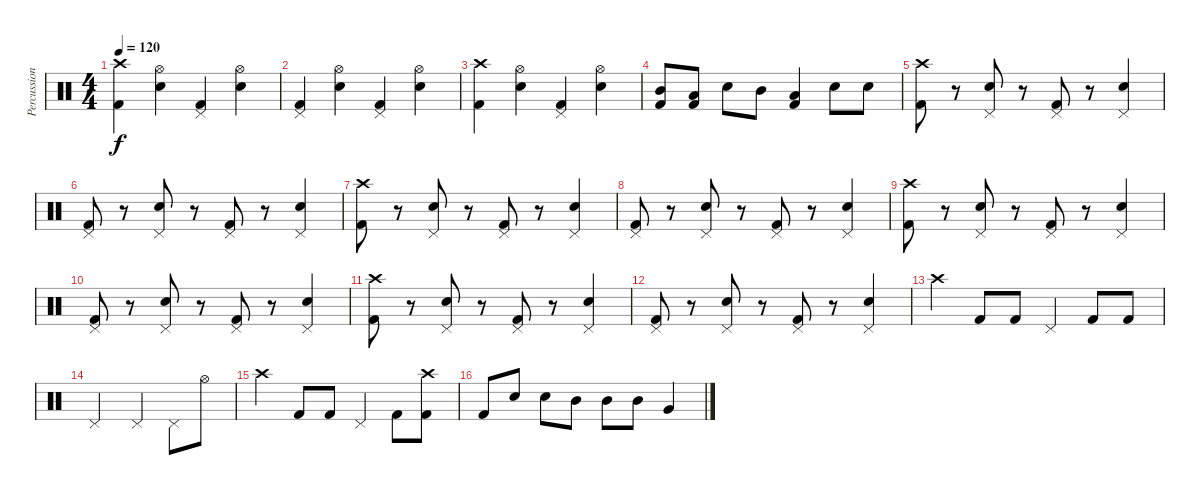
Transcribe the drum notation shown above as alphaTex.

\track ("Percussions" "Percussion") {instrument percussion}
\staff {score}
\articulation defaults
\ts (4 4)
\tempo 120
\clef neutral
\ks c
("Crash high (hit)" "Kick (hit) 2").4{dy f} ("Hi-Hat (open)" "Snare (hit) 2").4 ("Pedal Hi-Hat (hit)" "Kick (hit) 2").4 ("Hi-Hat (open)" "Snare (hit) 2").4 |
("Pedal Hi-Hat (hit)" "Kick (hit) 2").4 ("Hi-Hat (open)" "Snare (hit) 2").4 ("Pedal Hi-Hat (hit)" "Kick (hit) 2").4 ("Hi-Hat (open)" "Snare (hit) 2").4 |
("Crash high (hit)" "Kick (hit) 2").4 ("Hi-Hat (open)" "Snare (hit) 2").4 ("Pedal Hi-Hat (hit)" "Kick (hit) 2").4 ("Hi-Hat (open)" "Snare (hit) 2").4 |
("Mid Tom (hit)" "Kick (hit) 2").8 ("Low Tom (hit)" "Kick (hit) 2").8 "Snare (hit) 2".8 "Mid Tom (hit)".8 ("Low Tom (hit)" "Kick (hit) 2").4 "Snare (hit) 2".8 "Snare (hit) 2".8 |
("Crash high (hit)" "Kick (hit) 2").8 r.8 ("Pedal Hi-Hat (hit)" "Snare (hit) 2").8 r.8 ("Pedal Hi-Hat (hit)" "Kick (hit) 2").8 r.8 ("Pedal Hi-Hat (hit)" "Snare (hit) 2").4 |
("Pedal Hi-Hat (hit)" "Kick (hit) 2").8 r.8 ("Pedal Hi-Hat (hit)" "Snare (hit) 2").8 r.8 ("Pedal Hi-Hat (hit)" "Kick (hit) 2").8 r.8 ("Pedal Hi-Hat (hit)" "Snare (hit) 2").4 |
("Crash high (hit)" "Kick (hit) 2").8 r.8 ("Pedal Hi-Hat (hit)" "Snare (hit) 2").8 r.8 ("Pedal Hi-Hat (hit)" "Kick (hit) 2").8 r.8 ("Pedal Hi-Hat (hit)" "Snare (hit) 2").4 |
("Pedal Hi-Hat (hit)" "Kick (hit) 2").8 r.8 ("Pedal Hi-Hat (hit)" "Snare (hit) 2").8 r.8 ("Pedal Hi-Hat (hit)" "Kick (hit) 2").8 r.8 ("Pedal Hi-Hat (hit)" "Snare (hit) 2").4 |
("Crash high (hit)" "Kick (hit) 2").8 r.8 ("Pedal Hi-Hat (hit)" "Snare (hit) 2").8 r.8 ("Pedal Hi-Hat (hit)" "Kick (hit) 2").8 r.8 ("Pedal Hi-Hat (hit)" "Snare (hit) 2").4 |
("Pedal Hi-Hat (hit)" "Kick (hit) 2").8 r.8 ("Pedal Hi-Hat (hit)" "Snare (hit) 2").8 r.8 ("Pedal Hi-Hat (hit)" "Kick (hit) 2").8 r.8 ("Pedal Hi-Hat (hit)" "Snare (hit) 2").4 |
("Crash high (hit)" "Kick (hit) 2").8 r.8 ("Pedal Hi-Hat (hit)" "Snare (hit) 2").8 r.8 ("Pedal Hi-Hat (hit)" "Kick (hit) 2").8 r.8 ("Pedal Hi-Hat (hit)" "Snare (hit) 2").4 |
("Pedal Hi-Hat (hit)" "Kick (hit) 2").8 r.8 ("Pedal Hi-Hat (hit)" "Snare (hit) 2").8 r.8 ("Pedal Hi-Hat (hit)" "Kick (hit) 2").8 r.8 ("Pedal Hi-Hat (hit)" "Snare (hit) 2").4 |
"Crash high (hit)".4 "Kick (hit) 2".8 "Kick (hit) 2".8 "Pedal Hi-Hat (hit)".4 "Kick (hit) 2".8 "Kick (hit) 2".8 |
"Pedal Hi-Hat (hit)".2 "Pedal Hi-Hat (hit)".4 "Pedal Hi-Hat (hit)".8 "Hi-Hat (open)".8 |
"Crash high (hit)".4 "Kick (hit) 2".8 "Kick (hit) 2".8 "Pedal Hi-Hat (hit)".4 "Kick (hit) 2".8 ("Crash high (hit)" "Kick (hit) 2").8 |
"Kick (hit) 2".8 "Snare (hit) 2".8 "Snare (hit) 2".8 "Mid Tom (hit)".8 "Mid Tom (hit)".8 "Mid Tom (hit)".8 "Very Low Tom (hit)".4
